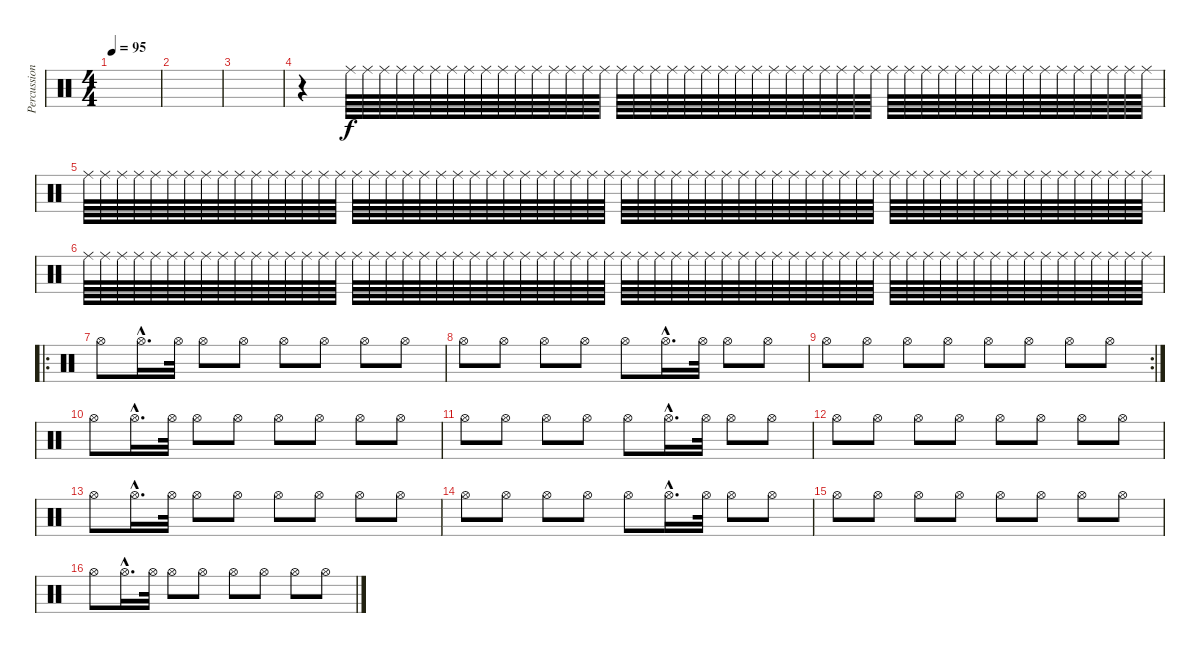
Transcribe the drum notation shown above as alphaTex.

\track ("Percussions" "Percussion") {instrument percussion}
\staff {score}
\articulation defaults
\ts (4 4)
\tempo 95
\clef neutral
\ks c
|
|
|
r.4 "Ride (middle)".64 "Ride (middle)".64 "Ride (middle)".64 "Ride (middle)".64 "Ride (middle)".64 "Ride (middle)".64 "Ride (middle)".64 "Ride (middle)".64 "Ride (middle)".64 "Ride (middle)".64 "Ride (middle)".64 "Ride (middle)".64 "Ride (middle)".64 "Ride (middle)".64 "Ride (middle)".64 "Ride (middle)".64 "Ride (middle)".64 "Ride (middle)".64 "Ride (middle)".64 "Ride (middle)".64 "Ride (middle)".64 "Ride (middle)".64 "Ride (middle)".64 "Ride (middle)".64 "Ride (middle)".64 "Ride (middle)".64 "Ride (middle)".64 "Ride (middle)".64 "Ride (middle)".64 "Ride (middle)".64 "Ride (middle)".64 "Ride (middle)".64 "Ride (middle)".64 "Ride (middle)".64 "Ride (middle)".64 "Ride (middle)".64 "Ride (middle)".64 "Ride (middle)".64 "Ride (middle)".64 "Ride (middle)".64 "Ride (middle)".64 "Ride (middle)".64 "Ride (middle)".64 "Ride (middle)".64 "Ride (middle)".64 "Ride (middle)".64 "Ride (middle)".64 "Ride (middle)".64 |
"Ride (middle)".64 "Ride (middle)".64 "Ride (middle)".64 "Ride (middle)".64 "Ride (middle)".64 "Ride (middle)".64 "Ride (middle)".64 "Ride (middle)".64 "Ride (middle)".64 "Ride (middle)".64 "Ride (middle)".64 "Ride (middle)".64 "Ride (middle)".64 "Ride (middle)".64 "Ride (middle)".64 "Ride (middle)".64 "Ride (middle)".64 "Ride (middle)".64 "Ride (middle)".64 "Ride (middle)".64 "Ride (middle)".64 "Ride (middle)".64 "Ride (middle)".64 "Ride (middle)".64 "Ride (middle)".64 "Ride (middle)".64 "Ride (middle)".64 "Ride (middle)".64 "Ride (middle)".64 "Ride (middle)".64 "Ride (middle)".64 "Ride (middle)".64 "Ride (middle)".64 "Ride (middle)".64 "Ride (middle)".64 "Ride (middle)".64 "Ride (middle)".64 "Ride (middle)".64 "Ride (middle)".64 "Ride (middle)".64 "Ride (middle)".64 "Ride (middle)".64 "Ride (middle)".64 "Ride (middle)".64 "Ride (middle)".64 "Ride (middle)".64 "Ride (middle)".64 "Ride (middle)".64 "Ride (middle)".64 "Ride (middle)".64 "Ride (middle)".64 "Ride (middle)".64 "Ride (middle)".64 "Ride (middle)".64 "Ride (middle)".64 "Ride (middle)".64 "Ride (middle)".64 "Ride (middle)".64 "Ride (middle)".64 "Ride (middle)".64 "Ride (middle)".64 "Ride (middle)".64 "Ride (middle)".64 "Ride (middle)".64 |
"Ride (middle)".64 "Ride (middle)".64 "Ride (middle)".64 "Ride (middle)".64 "Ride (middle)".64 "Ride (middle)".64 "Ride (middle)".64 "Ride (middle)".64 "Ride (middle)".64 "Ride (middle)".64 "Ride (middle)".64 "Ride (middle)".64 "Ride (middle)".64 "Ride (middle)".64 "Ride (middle)".64 "Ride (middle)".64 "Ride (middle)".64 "Ride (middle)".64 "Ride (middle)".64 "Ride (middle)".64 "Ride (middle)".64 "Ride (middle)".64 "Ride (middle)".64 "Ride (middle)".64 "Ride (middle)".64 "Ride (middle)".64 "Ride (middle)".64 "Ride (middle)".64 "Ride (middle)".64 "Ride (middle)".64 "Ride (middle)".64 "Ride (middle)".64 "Ride (middle)".64 "Ride (middle)".64 "Ride (middle)".64 "Ride (middle)".64 "Ride (middle)".64 "Ride (middle)".64 "Ride (middle)".64 "Ride (middle)".64 "Ride (middle)".64 "Ride (middle)".64 "Ride (middle)".64 "Ride (middle)".64 "Ride (middle)".64 "Ride (middle)".64 "Ride (middle)".64 "Ride (middle)".64 "Ride (middle)".64 "Ride (middle)".64 "Ride (middle)".64 "Ride (middle)".64 "Ride (middle)".64 "Ride (middle)".64 "Ride (middle)".64 "Ride (middle)".64 "Ride (middle)".64 "Ride (middle)".64 "Ride (middle)".64 "Ride (middle)".64 "Ride (middle)".64 "Ride (middle)".64 "Ride (middle)".64 "Ride (middle)".64 |
\ro "Hi-Hat (open)".8 "Hi-Hat (open)"{hac}.16{d} "Hi-Hat (open)".32 "Hi-Hat (open)".8 "Hi-Hat (open)".8 "Hi-Hat (open)".8 "Hi-Hat (open)".8 "Hi-Hat (open)".8 "Hi-Hat (open)".8
|
"Hi-Hat (open)".8 "Hi-Hat (open)".8 "Hi-Hat (open)".8 "Hi-Hat (open)".8 "Hi-Hat (open)".8 "Hi-Hat (open)"{hac}.16{d} "Hi-Hat (open)".32 "Hi-Hat (open)".8 "Hi-Hat (open)".8 |
\rc 2 "Hi-Hat (open)".8 "Hi-Hat (open)".8 "Hi-Hat (open)".8 "Hi-Hat (open)".8 "Hi-Hat (open)".8 "Hi-Hat (open)".8 "Hi-Hat (open)".8 "Hi-Hat (open)".8
|
"Hi-Hat (open)".8 "Hi-Hat (open)"{hac}.16{d} "Hi-Hat (open)".32 "Hi-Hat (open)".8 "Hi-Hat (open)".8 "Hi-Hat (open)".8 "Hi-Hat (open)".8 "Hi-Hat (open)".8 "Hi-Hat (open)".8 |
"Hi-Hat (open)".8 "Hi-Hat (open)".8 "Hi-Hat (open)".8 "Hi-Hat (open)".8 "Hi-Hat (open)".8 "Hi-Hat (open)"{hac}.16{d} "Hi-Hat (open)".32 "Hi-Hat (open)".8 "Hi-Hat (open)".8 |
"Hi-Hat (open)".8 "Hi-Hat (open)".8 "Hi-Hat (open)".8 "Hi-Hat (open)".8 "Hi-Hat (open)".8 "Hi-Hat (open)".8 "Hi-Hat (open)".8 "Hi-Hat (open)".8 |
"Hi-Hat (open)".8 "Hi-Hat (open)"{hac}.16{d} "Hi-Hat (open)".32 "Hi-Hat (open)".8 "Hi-Hat (open)".8 "Hi-Hat (open)".8 "Hi-Hat (open)".8 "Hi-Hat (open)".8 "Hi-Hat (open)".8 |
"Hi-Hat (open)".8 "Hi-Hat (open)".8 "Hi-Hat (open)".8 "Hi-Hat (open)".8 "Hi-Hat (open)".8 "Hi-Hat (open)"{hac}.16{d} "Hi-Hat (open)".32 "Hi-Hat (open)".8 "Hi-Hat (open)".8 |
"Hi-Hat (open)".8 "Hi-Hat (open)".8 "Hi-Hat (open)".8 "Hi-Hat (open)".8 "Hi-Hat (open)".8 "Hi-Hat (open)".8 "Hi-Hat (open)".8 "Hi-Hat (open)".8 |
"Hi-Hat (open)".8 "Hi-Hat (open)"{hac}.16{d} "Hi-Hat (open)".32 "Hi-Hat (open)".8 "Hi-Hat (open)".8 "Hi-Hat (open)".8 "Hi-Hat (open)".8 "Hi-Hat (open)".8 "Hi-Hat (open)".8
